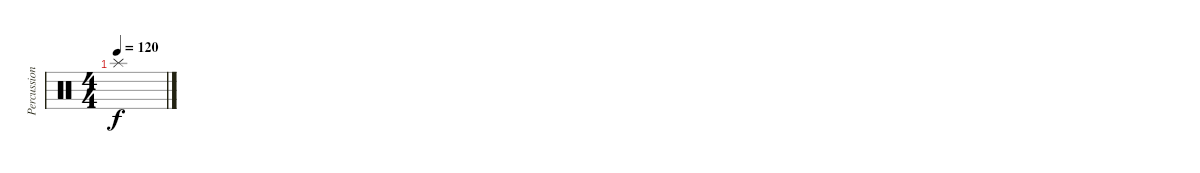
\track ("Percussion" "Percussion") {instrument percussion}
\staff {score}
\articulation defaults
\ts (4 4)
\tempo 120
\clef neutral
\ks c "Splash (hit)".1{dy f}
